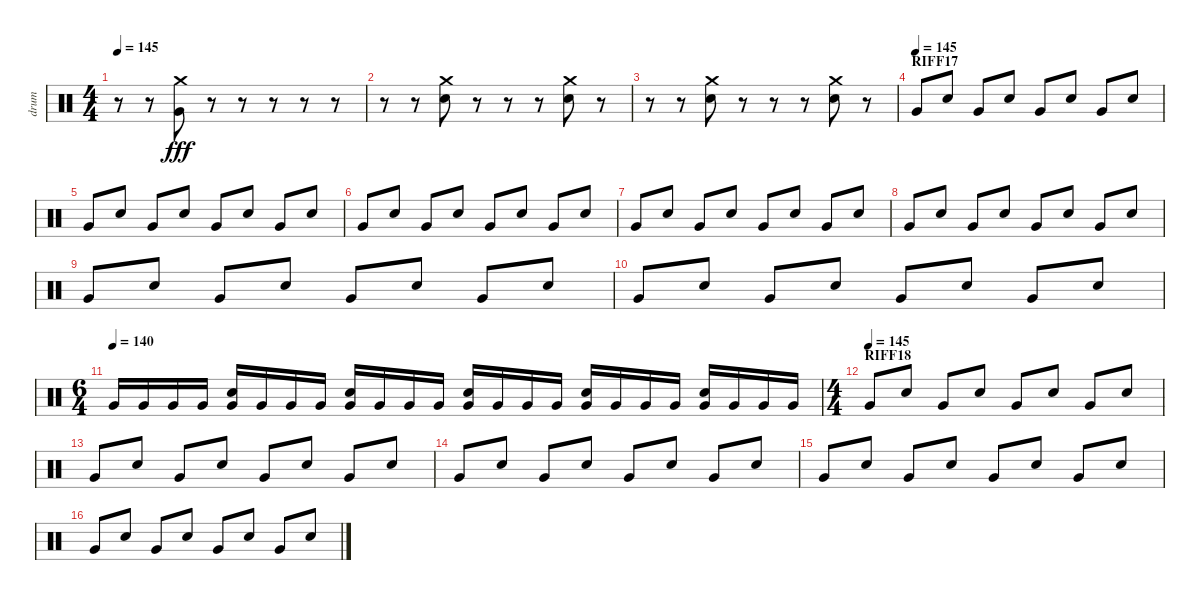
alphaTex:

\track ("drum" "drum") {instrument percussion}
\staff {score}
\articulation defaults
\ts (4 4)
\tempo 145
\clef neutral
\ks c
r.8{dy fff} r.8 ("Very Low Tom (hit)" "Crash medium (hit)").8 r.8 r.8 r.8 r.8 r.8 |
r.8 r.8 ("Electric Snare (hit)" "Crash medium (hit)").8 r.8 r.8 r.8 ("Electric Snare (hit)" "Crash medium (hit)").8 r.8 |
r.8 r.8 ("Electric Snare (hit)" "Crash medium (hit)").8 r.8 r.8 r.8 ("Electric Snare (hit)" "Crash medium (hit)").8 r.8 |
\section ("" "RIFF17")
\tempo (145)
"Very Low Tom (hit)".8 "Electric Snare (hit)".8 "Very Low Tom (hit)".8 "Electric Snare (hit)".8 "Very Low Tom (hit)".8 "Electric Snare (hit)".8 "Very Low Tom (hit)".8 "Electric Snare (hit)".8 |
"Very Low Tom (hit)".8 "Electric Snare (hit)".8 "Very Low Tom (hit)".8 "Electric Snare (hit)".8 "Very Low Tom (hit)".8 "Electric Snare (hit)".8 "Very Low Tom (hit)".8 "Electric Snare (hit)".8 |
"Very Low Tom (hit)".8 "Electric Snare (hit)".8 "Very Low Tom (hit)".8 "Electric Snare (hit)".8 "Very Low Tom (hit)".8 "Electric Snare (hit)".8 "Very Low Tom (hit)".8 "Electric Snare (hit)".8 |
"Very Low Tom (hit)".8 "Electric Snare (hit)".8 "Very Low Tom (hit)".8 "Electric Snare (hit)".8 "Very Low Tom (hit)".8 "Electric Snare (hit)".8 "Very Low Tom (hit)".8 "Electric Snare (hit)".8 |
"Very Low Tom (hit)".8 "Electric Snare (hit)".8 "Very Low Tom (hit)".8 "Electric Snare (hit)".8 "Very Low Tom (hit)".8 "Electric Snare (hit)".8 "Very Low Tom (hit)".8 "Electric Snare (hit)".8 |
"Very Low Tom (hit)".8 "Electric Snare (hit)".8 "Very Low Tom (hit)".8 "Electric Snare (hit)".8 "Very Low Tom (hit)".8 "Electric Snare (hit)".8 "Very Low Tom (hit)".8 "Electric Snare (hit)".8 |
"Very Low Tom (hit)".8 "Electric Snare (hit)".8 "Very Low Tom (hit)".8 "Electric Snare (hit)".8 "Very Low Tom (hit)".8 "Electric Snare (hit)".8 "Very Low Tom (hit)".8 "Electric Snare (hit)".8 |
\ts (6 4)
\tempo (140)
"Very Low Tom (hit)".16 "Very Low Tom (hit)".16 "Very Low Tom (hit)".16 "Very Low Tom (hit)".16 ("Very Low Tom (hit)" "Electric Snare (hit)").16 "Very Low Tom (hit)".16 "Very Low Tom (hit)".16 "Very Low Tom (hit)".16 ("Very Low Tom (hit)" "Electric Snare (hit)").16 "Very Low Tom (hit)".16 "Very Low Tom (hit)".16 "Very Low Tom (hit)".16 ("Very Low Tom (hit)" "Electric Snare (hit)").16 "Very Low Tom (hit)".16 "Very Low Tom (hit)".16 "Very Low Tom (hit)".16 ("Very Low Tom (hit)" "Electric Snare (hit)").16 "Very Low Tom (hit)".16 "Very Low Tom (hit)".16 "Very Low Tom (hit)".16 ("Very Low Tom (hit)" "Electric Snare (hit)").16 "Very Low Tom (hit)".16 "Very Low Tom (hit)".16 "Very Low Tom (hit)".16 |
\ts (4 4)
\section ("" "RIFF18")
\tempo (145)
"Very Low Tom (hit)".8 "Electric Snare (hit)".8 "Very Low Tom (hit)".8 "Electric Snare (hit)".8 "Very Low Tom (hit)".8 "Electric Snare (hit)".8 "Very Low Tom (hit)".8 "Electric Snare (hit)".8 |
"Very Low Tom (hit)".8 "Electric Snare (hit)".8 "Very Low Tom (hit)".8 "Electric Snare (hit)".8 "Very Low Tom (hit)".8 "Electric Snare (hit)".8 "Very Low Tom (hit)".8 "Electric Snare (hit)".8 |
"Very Low Tom (hit)".8 "Electric Snare (hit)".8 "Very Low Tom (hit)".8 "Electric Snare (hit)".8 "Very Low Tom (hit)".8 "Electric Snare (hit)".8 "Very Low Tom (hit)".8 "Electric Snare (hit)".8 |
"Very Low Tom (hit)".8 "Electric Snare (hit)".8 "Very Low Tom (hit)".8 "Electric Snare (hit)".8 "Very Low Tom (hit)".8 "Electric Snare (hit)".8 "Very Low Tom (hit)".8 "Electric Snare (hit)".8 |
"Very Low Tom (hit)".8 "Electric Snare (hit)".8 "Very Low Tom (hit)".8 "Electric Snare (hit)".8 "Very Low Tom (hit)".8 "Electric Snare (hit)".8 "Very Low Tom (hit)".8 "Electric Snare (hit)".8
